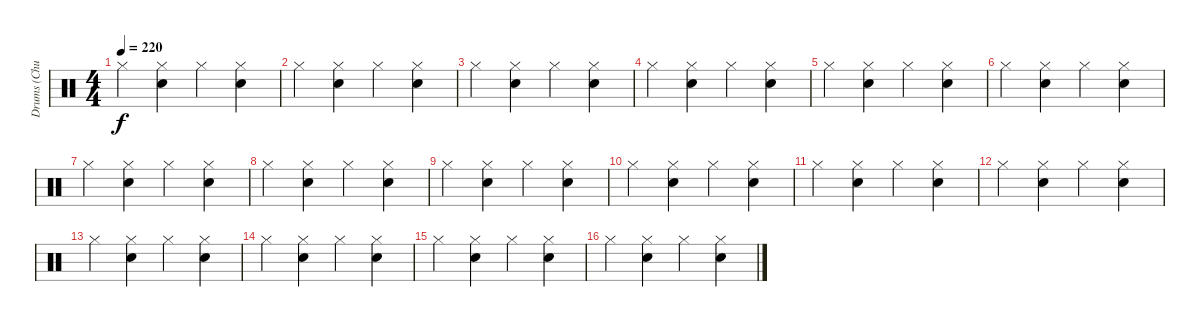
\track ("Drums (Chuck Behler)" "Drums (Chu") {instrument percussion}
\staff {score}
\articulation defaults
\ts (4 4)
\tempo 220
\clef neutral
\ks c "Hi-Hat (closed)".4{dy f}
("Hi-Hat (closed)" "Snare (hit) 2").4 "Hi-Hat (closed)".4 ("Hi-Hat (closed)" "Snare (hit) 2").4 |
"Hi-Hat (closed)".4 ("Hi-Hat (closed)" "Snare (hit) 2").4 "Hi-Hat (closed)".4 ("Hi-Hat (closed)" "Snare (hit) 2").4 |
"Hi-Hat (closed)".4 ("Hi-Hat (closed)" "Snare (hit) 2").4 "Hi-Hat (closed)".4 ("Hi-Hat (closed)" "Snare (hit) 2").4 |
"Hi-Hat (closed)".4 ("Hi-Hat (closed)" "Snare (hit) 2").4 "Hi-Hat (closed)".4 ("Hi-Hat (closed)" "Snare (hit) 2").4 |
"Hi-Hat (closed)".4 ("Hi-Hat (closed)" "Snare (hit) 2").4 "Hi-Hat (closed)".4 ("Hi-Hat (closed)" "Snare (hit) 2").4 |
"Hi-Hat (closed)".4 ("Hi-Hat (closed)" "Snare (hit) 2").4 "Hi-Hat (closed)".4 ("Hi-Hat (closed)" "Snare (hit) 2").4 |
"Hi-Hat (closed)".4 ("Hi-Hat (closed)" "Snare (hit) 2").4 "Hi-Hat (closed)".4 ("Hi-Hat (closed)" "Snare (hit) 2").4 |
"Hi-Hat (closed)".4 ("Hi-Hat (closed)" "Snare (hit) 2").4 "Hi-Hat (closed)".4 ("Hi-Hat (closed)" "Snare (hit) 2").4 |
"Hi-Hat (closed)".4 ("Hi-Hat (closed)" "Snare (hit) 2").4 "Hi-Hat (closed)".4 ("Hi-Hat (closed)" "Snare (hit) 2").4 |
"Hi-Hat (closed)".4 ("Hi-Hat (closed)" "Snare (hit) 2").4 "Hi-Hat (closed)".4 ("Hi-Hat (closed)" "Snare (hit) 2").4 |
"Hi-Hat (closed)".4 ("Hi-Hat (closed)" "Snare (hit) 2").4 "Hi-Hat (closed)".4 ("Hi-Hat (closed)" "Snare (hit) 2").4 |
"Hi-Hat (closed)".4 ("Hi-Hat (closed)" "Snare (hit) 2").4 "Hi-Hat (closed)".4 ("Hi-Hat (closed)" "Snare (hit) 2").4 |
"Hi-Hat (closed)".4 ("Hi-Hat (closed)" "Snare (hit) 2").4 "Hi-Hat (closed)".4 ("Hi-Hat (closed)" "Snare (hit) 2").4 |
"Hi-Hat (closed)".4 ("Hi-Hat (closed)" "Snare (hit) 2").4 "Hi-Hat (closed)".4 ("Hi-Hat (closed)" "Snare (hit) 2").4 |
"Hi-Hat (closed)".4 ("Hi-Hat (closed)" "Snare (hit) 2").4 "Hi-Hat (closed)".4 ("Hi-Hat (closed)" "Snare (hit) 2").4 |
"Hi-Hat (closed)".4 ("Hi-Hat (closed)" "Snare (hit) 2").4 "Hi-Hat (closed)".4 ("Hi-Hat (closed)" "Snare (hit) 2").4
